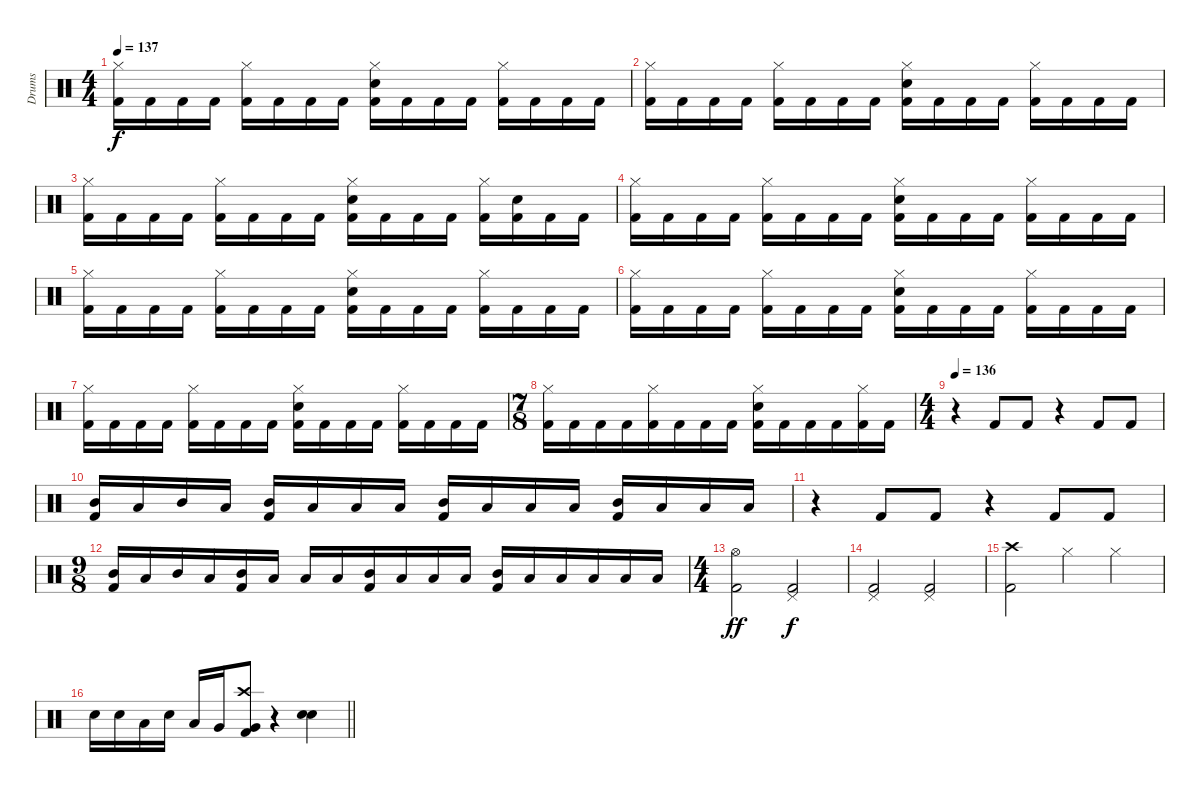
\track ("Drums" "Drums") {instrument percussion}
\staff {score}
\articulation defaults
\ts (4 4)
\tempo 137
\clef neutral
\ks c
("Hi-Hat (closed)" "Kick (hit) 2").16{dy f} "Kick (hit) 2".16 "Kick (hit) 2".16 "Kick (hit) 2".16 ("Hi-Hat (closed)" "Kick (hit) 2").16 "Kick (hit) 2".16 "Kick (hit) 2".16 "Kick (hit) 2".16 ("Hi-Hat (closed)" "Snare (hit) 2" "Kick (hit) 2").16 "Kick (hit) 2".16 "Kick (hit) 2".16 "Kick (hit) 2".16 ("Hi-Hat (closed)" "Kick (hit) 2").16 "Kick (hit) 2".16 "Kick (hit) 2".16 "Kick (hit) 2".16 |
("Hi-Hat (closed)" "Kick (hit) 2").16 "Kick (hit) 2".16 "Kick (hit) 2".16 "Kick (hit) 2".16 ("Hi-Hat (closed)" "Kick (hit) 2").16 "Kick (hit) 2".16 "Kick (hit) 2".16 "Kick (hit) 2".16 ("Hi-Hat (closed)" "Snare (hit) 2" "Kick (hit) 2").16 "Kick (hit) 2".16 "Kick (hit) 2".16 "Kick (hit) 2".16 ("Hi-Hat (closed)" "Kick (hit) 2").16 "Kick (hit) 2".16 "Kick (hit) 2".16 "Kick (hit) 2".16 |
("Hi-Hat (closed)" "Kick (hit) 2").16 "Kick (hit) 2".16 "Kick (hit) 2".16 "Kick (hit) 2".16 ("Hi-Hat (closed)" "Kick (hit) 2").16 "Kick (hit) 2".16 "Kick (hit) 2".16 "Kick (hit) 2".16 ("Hi-Hat (closed)" "Snare (hit) 2" "Kick (hit) 2").16 "Kick (hit) 2".16 "Kick (hit) 2".16 "Kick (hit) 2".16 ("Hi-Hat (closed)" "Kick (hit) 2").16 ("Snare (hit) 2" "Kick (hit) 2").16 "Kick (hit) 2".16 "Kick (hit) 2".16 |
("Hi-Hat (closed)" "Kick (hit) 2").16 "Kick (hit) 2".16 "Kick (hit) 2".16 "Kick (hit) 2".16 ("Hi-Hat (closed)" "Kick (hit) 2").16 "Kick (hit) 2".16 "Kick (hit) 2".16 "Kick (hit) 2".16 ("Hi-Hat (closed)" "Snare (hit) 2" "Kick (hit) 2").16 "Kick (hit) 2".16 "Kick (hit) 2".16 "Kick (hit) 2".16 ("Hi-Hat (closed)" "Kick (hit) 2").16 "Kick (hit) 2".16 "Kick (hit) 2".16 "Kick (hit) 2".16 |
("Hi-Hat (closed)" "Kick (hit) 2").16 "Kick (hit) 2".16 "Kick (hit) 2".16 "Kick (hit) 2".16 ("Hi-Hat (closed)" "Kick (hit) 2").16 "Kick (hit) 2".16 "Kick (hit) 2".16 "Kick (hit) 2".16 ("Hi-Hat (closed)" "Snare (hit) 2" "Kick (hit) 2").16 "Kick (hit) 2".16 "Kick (hit) 2".16 "Kick (hit) 2".16 ("Hi-Hat (closed)" "Kick (hit) 2").16 "Kick (hit) 2".16 "Kick (hit) 2".16 "Kick (hit) 2".16 |
("Hi-Hat (closed)" "Kick (hit) 2").16 "Kick (hit) 2".16 "Kick (hit) 2".16 "Kick (hit) 2".16 ("Hi-Hat (closed)" "Kick (hit) 2").16 "Kick (hit) 2".16 "Kick (hit) 2".16 "Kick (hit) 2".16 ("Hi-Hat (closed)" "Snare (hit) 2" "Kick (hit) 2").16 "Kick (hit) 2".16 "Kick (hit) 2".16 "Kick (hit) 2".16 ("Hi-Hat (closed)" "Kick (hit) 2").16 "Kick (hit) 2".16 "Kick (hit) 2".16 "Kick (hit) 2".16 |
("Hi-Hat (closed)" "Kick (hit) 2").16 "Kick (hit) 2".16 "Kick (hit) 2".16 "Kick (hit) 2".16 ("Hi-Hat (closed)" "Kick (hit) 2").16 "Kick (hit) 2".16 "Kick (hit) 2".16 "Kick (hit) 2".16 ("Hi-Hat (closed)" "Snare (hit) 2" "Kick (hit) 2").16 "Kick (hit) 2".16 "Kick (hit) 2".16 "Kick (hit) 2".16 ("Hi-Hat (closed)" "Kick (hit) 2").16 "Kick (hit) 2".16 "Kick (hit) 2".16 "Kick (hit) 2".16 |
\ts (7 8)
("Hi-Hat (closed)" "Kick (hit) 2").16 "Kick (hit) 2".16 "Kick (hit) 2".16 "Kick (hit) 2".16 ("Hi-Hat (closed)" "Kick (hit) 2").16 "Kick (hit) 2".16 "Kick (hit) 2".16 "Kick (hit) 2".16 ("Hi-Hat (closed)" "Snare (hit) 2" "Kick (hit) 2").16 "Kick (hit) 2".16 "Kick (hit) 2".16 "Kick (hit) 2".16 ("Hi-Hat (closed)" "Kick (hit) 2").16 "Kick (hit) 2".16 |
\ts (4 4)
\tempo 136
r.4 "Kick (hit) 2".8 "Kick (hit) 2".8 r.4 "Kick (hit) 2".8 "Kick (hit) 2".8 |
("Mid Tom (hit)" "Kick (hit) 2").16 "Low Tom (hit)".16 "Mid Tom (hit)".16 "Low Tom (hit)".16 ("Mid Tom (hit)" "Kick (hit) 2").16 "Low Tom (hit)".16 "Low Tom (hit)".16 "Low Tom (hit)".16 ("Mid Tom (hit)" "Kick (hit) 2").16 "Low Tom (hit)".16 "Low Tom (hit)".16 "Low Tom (hit)".16 ("Mid Tom (hit)" "Kick (hit) 2").16 "Low Tom (hit)".16 "Low Tom (hit)".16 "Low Tom (hit)".16 |
r.4 "Kick (hit) 2".8 "Kick (hit) 2".8 r.4 "Kick (hit) 2".8 "Kick (hit) 2".8 |
\ts (9 8)
("Mid Tom (hit)" "Kick (hit) 2").16 "Low Tom (hit)".16 "Mid Tom (hit)".16 "Low Tom (hit)".16 ("Mid Tom (hit)" "Kick (hit) 2").16 "Low Tom (hit)".16 "Low Tom (hit)".16 "Low Tom (hit)".16 ("Mid Tom (hit)" "Kick (hit) 2").16 "Low Tom (hit)".16 "Low Tom (hit)".16 "Low Tom (hit)".16 ("Mid Tom (hit)" "Kick (hit) 2").16 "Low Tom (hit)".16 "Low Tom (hit)".16 "Low Tom (hit)".16 "Low Tom (hit)".16 "Low Tom (hit)".16 |
\ts (4 4)
("Hi-Hat (open)" "Kick (hit) 2").2{dy ff} ("Pedal Hi-Hat (hit)" "Kick (hit) 2").2{dy f} |
("Pedal Hi-Hat (hit)" "Kick (hit) 2").2 ("Pedal Hi-Hat (hit)" "Kick (hit) 2").2 |
("Crash high (hit)" "Kick (hit) 2").2 "Hi-Hat (closed)".4 "Hi-Hat (closed)".4 |
\barLineRight lightlight "Electric Snare (hit)".16 "Electric Snare (hit)".16 "Low Tom (hit)".16 "Electric Snare (hit)".16 "Low Tom (hit)".16 "Very Low Tom (hit)".16
("Crash high (hit)" "Very Low Tom (hit)" "Kick (hit) 2").8 r.4 ("Electric Snare (hit)" "Snare (hit) 2").4
